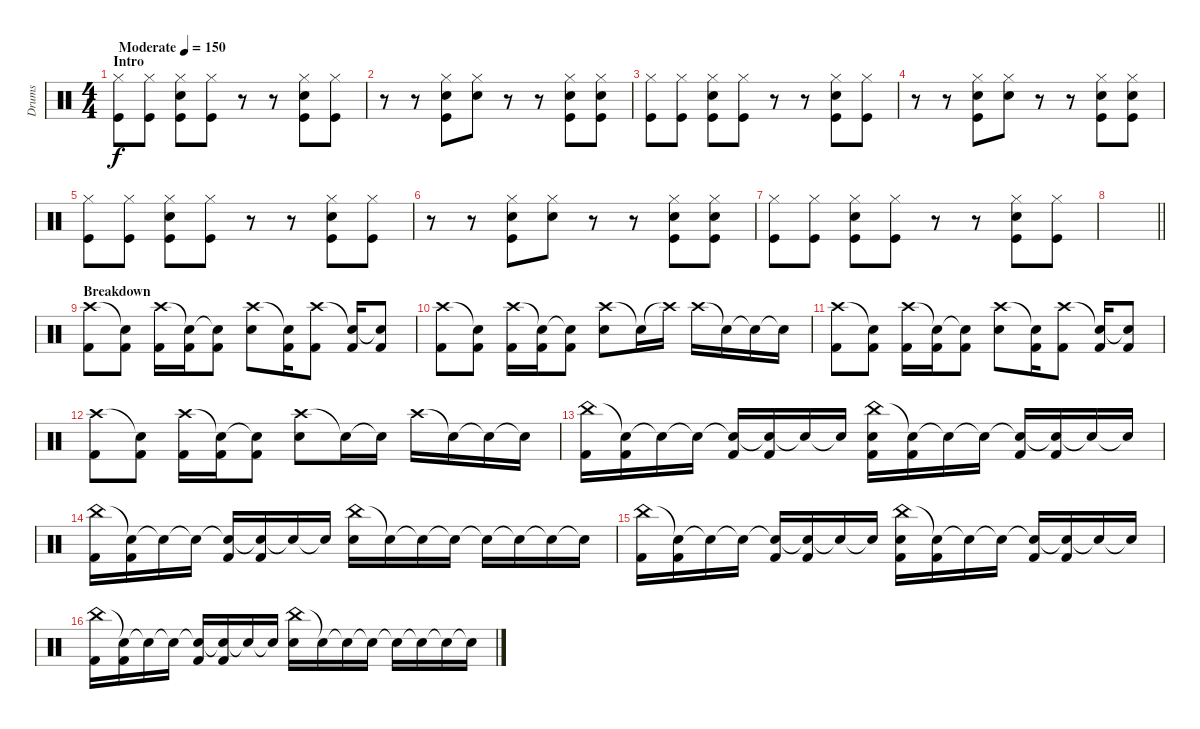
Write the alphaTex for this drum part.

\track ("Drums" "Drums") {instrument percussion}
\staff {score}
\articulation defaults
\ts (4 4)
\section ("" "Intro")
\tempo (150 "Moderate")
\clef neutral
\ks c
("Hi-Hat (closed)" "Kick (hit)").8{dy f} ("Hi-Hat (closed)" "Kick (hit)").8 ("Hi-Hat (closed)" "Hand Clap (hit)" "Kick (hit)").8 ("Hi-Hat (closed)" "Kick (hit)").8 r.8 r.8 ("Hi-Hat (closed)" "Hand Clap (hit)" "Kick (hit)").8 ("Hi-Hat (closed)" "Kick (hit)").8 |
r.8 r.8 ("Hi-Hat (closed)" "Hand Clap (hit)" "Kick (hit)").8 ("Hi-Hat (closed)" "Hand Clap (hit)").8 r.8 r.8 ("Hi-Hat (closed)" "Hand Clap (hit)" "Kick (hit)").8 ("Hi-Hat (closed)" "Hand Clap (hit)" "Kick (hit)").8 |
("Hi-Hat (closed)" "Kick (hit)").8 ("Hi-Hat (closed)" "Kick (hit)").8 ("Hi-Hat (closed)" "Hand Clap (hit)" "Kick (hit)").8 ("Hi-Hat (closed)" "Kick (hit)").8 r.8 r.8 ("Hi-Hat (closed)" "Hand Clap (hit)" "Kick (hit)").8 ("Hi-Hat (closed)" "Kick (hit)").8 |
r.8 r.8 ("Hi-Hat (closed)" "Hand Clap (hit)" "Kick (hit)").8 ("Hi-Hat (closed)" "Hand Clap (hit)").8 r.8 r.8 ("Hi-Hat (closed)" "Hand Clap (hit)" "Kick (hit)").8 ("Hi-Hat (closed)" "Hand Clap (hit)" "Kick (hit)").8 |
("Hi-Hat (closed)" "Kick (hit)").8 ("Hi-Hat (closed)" "Kick (hit)").8 ("Hi-Hat (closed)" "Hand Clap (hit)" "Kick (hit)").8 ("Hi-Hat (closed)" "Kick (hit)").8 r.8 r.8 ("Hi-Hat (closed)" "Hand Clap (hit)" "Kick (hit)").8 ("Hi-Hat (closed)" "Kick (hit)").8 |
r.8 r.8 ("Hi-Hat (closed)" "Hand Clap (hit)" "Kick (hit)").8 ("Hi-Hat (closed)" "Hand Clap (hit)").8 r.8 r.8 ("Hi-Hat (closed)" "Hand Clap (hit)" "Kick (hit)").8 ("Hi-Hat (closed)" "Hand Clap (hit)" "Kick (hit)").8 |
("Hi-Hat (closed)" "Kick (hit)").8 ("Hi-Hat (closed)" "Kick (hit)").8 ("Hi-Hat (closed)" "Hand Clap (hit)" "Kick (hit)").8 ("Hi-Hat (closed)" "Kick (hit)").8 r.8 r.8 ("Hi-Hat (closed)" "Hand Clap (hit)" "Kick (hit)").8 ("Hi-Hat (closed)" "Kick (hit)").8 |
\barLineRight lightlight
|
\section ("" "Breakdown")
("Crash high (hit)" "Kick (hit) 2").8 ("Snare (hit)"{t} "Kick (hit) 2").8 ("Crash high (hit)" "Kick (hit) 2").16 ("Snare (hit)"{t} "Kick (hit) 2").16 ("Snare (hit)"{t} "Kick (hit) 2").8 ("Crash high (hit)" "Electric Snare (hit)").8 ("Snare (hit)"{t} "Kick (hit) 2").16 ("Crash high (hit)" "Kick (hit) 2").8 ("Snare (hit)"{t} "Kick (hit) 2").16 ("Snare (hit)"{t} "Kick (hit) 2").8 |
("Crash high (hit)" "Kick (hit) 2").8 ("Snare (hit)"{t} "Kick (hit) 2").8 ("Crash high (hit)" "Kick (hit) 2").16 ("Snare (hit)"{t} "Kick (hit) 2").16 ("Snare (hit)"{t} "Kick (hit) 2").8 ("Crash high (hit)" "Electric Snare (hit)").8 "Snare (hit)"{t}.16 "Crash high (hit)"{t}.16 "Crash high (hit)".16 "Snare (hit)"{t}.16 "Snare (hit)"{t}.16 "Snare (hit)"{t}.16 |
("Crash high (hit)" "Kick (hit) 2").8 ("Snare (hit)"{t} "Kick (hit) 2").8 ("Crash high (hit)" "Kick (hit) 2").16 ("Snare (hit)"{t} "Kick (hit) 2").16 ("Snare (hit)"{t} "Kick (hit) 2").8 ("Crash high (hit)" "Electric Snare (hit)").8 ("Snare (hit)"{t} "Kick (hit) 2").16 ("Crash high (hit)" "Kick (hit) 2").8 ("Snare (hit)"{t} "Kick (hit) 2").16 ("Snare (hit)"{t} "Kick (hit) 2").8 |
("Crash high (hit)" "Kick (hit) 2").8 ("Snare (hit)"{t} "Kick (hit) 2").8 ("Crash high (hit)" "Kick (hit) 2").16 ("Snare (hit)"{t} "Kick (hit) 2").16 ("Snare (hit)"{t} "Kick (hit) 2").8 ("Crash high (hit)" "Electric Snare (hit)").8 "Snare (hit)"{t}.16 "Snare (hit)"{t}.16 "Crash high (hit)".16 "Snare (hit)"{t}.16 "Snare (hit)"{t}.16 "Snare (hit)"{t}.16 |
("China (hit)" "Kick (hit) 2").16 ("Snare (hit)"{t} "Kick (hit) 2").16 "Snare (hit)"{t}.16 "Snare (hit)"{t}.16 ("Snare (hit)"{t} "Kick (hit) 2").16 ("Snare (hit)"{t} "Kick (hit) 2").16 "Snare (hit)"{t}.16 "Snare (hit)"{t}.16 ("China (hit)" "Electric Snare (hit)" "Kick (hit) 2").16 ("Snare (hit)"{t} "Kick (hit) 2").16 "Snare (hit)"{t}.16 "Snare (hit)"{t}.16 ("Snare (hit)"{t} "Kick (hit) 2").16 ("Snare (hit)"{t} "Kick (hit) 2").16 "Snare (hit)"{t}.16 "Snare (hit)"{t}.16 |
("China (hit)" "Kick (hit) 2").16 ("Snare (hit)"{t} "Kick (hit) 2").16 "Snare (hit)"{t}.16 "Snare (hit)"{t}.16 ("Snare (hit)"{t} "Kick (hit) 2").16 ("Snare (hit)"{t} "Kick (hit) 2").16 "Snare (hit)"{t}.16 "Snare (hit)"{t}.16 ("China (hit)" "Electric Snare (hit)").16 "Snare (hit)"{t}.16 "Snare (hit)"{t}.16 "Snare (hit)"{t}.16 "Snare (hit)"{t}.16 "Snare (hit)"{t}.16 "Snare (hit)"{t}.16 "Snare (hit)"{t}.16 |
("China (hit)" "Kick (hit) 2").16 ("Snare (hit)"{t} "Kick (hit) 2").16 "Snare (hit)"{t}.16 "Snare (hit)"{t}.16 ("Snare (hit)"{t} "Kick (hit) 2").16 ("Snare (hit)"{t} "Kick (hit) 2").16 "Snare (hit)"{t}.16 "Snare (hit)"{t}.16 ("China (hit)" "Electric Snare (hit)" "Kick (hit) 2").16 ("Snare (hit)"{t} "Kick (hit) 2").16 "Snare (hit)"{t}.16 "Snare (hit)"{t}.16 ("Snare (hit)"{t} "Kick (hit) 2").16 ("Snare (hit)"{t} "Kick (hit) 2").16 "Snare (hit)"{t}.16 "Snare (hit)"{t}.16 |
("China (hit)" "Kick (hit) 2").16 ("Snare (hit)"{t} "Kick (hit) 2").16 "Snare (hit)"{t}.16 "Snare (hit)"{t}.16 ("Snare (hit)"{t} "Kick (hit) 2").16 ("Snare (hit)"{t} "Kick (hit) 2").16 "Snare (hit)"{t}.16 "Snare (hit)"{t}.16 ("China (hit)" "Electric Snare (hit)").16 "Snare (hit)"{t}.16 "Snare (hit)"{t}.16 "Snare (hit)"{t}.16 "Snare (hit)"{t}.16 "Snare (hit)"{t}.16 "Snare (hit)"{t}.16 "Snare (hit)"{t}.16
